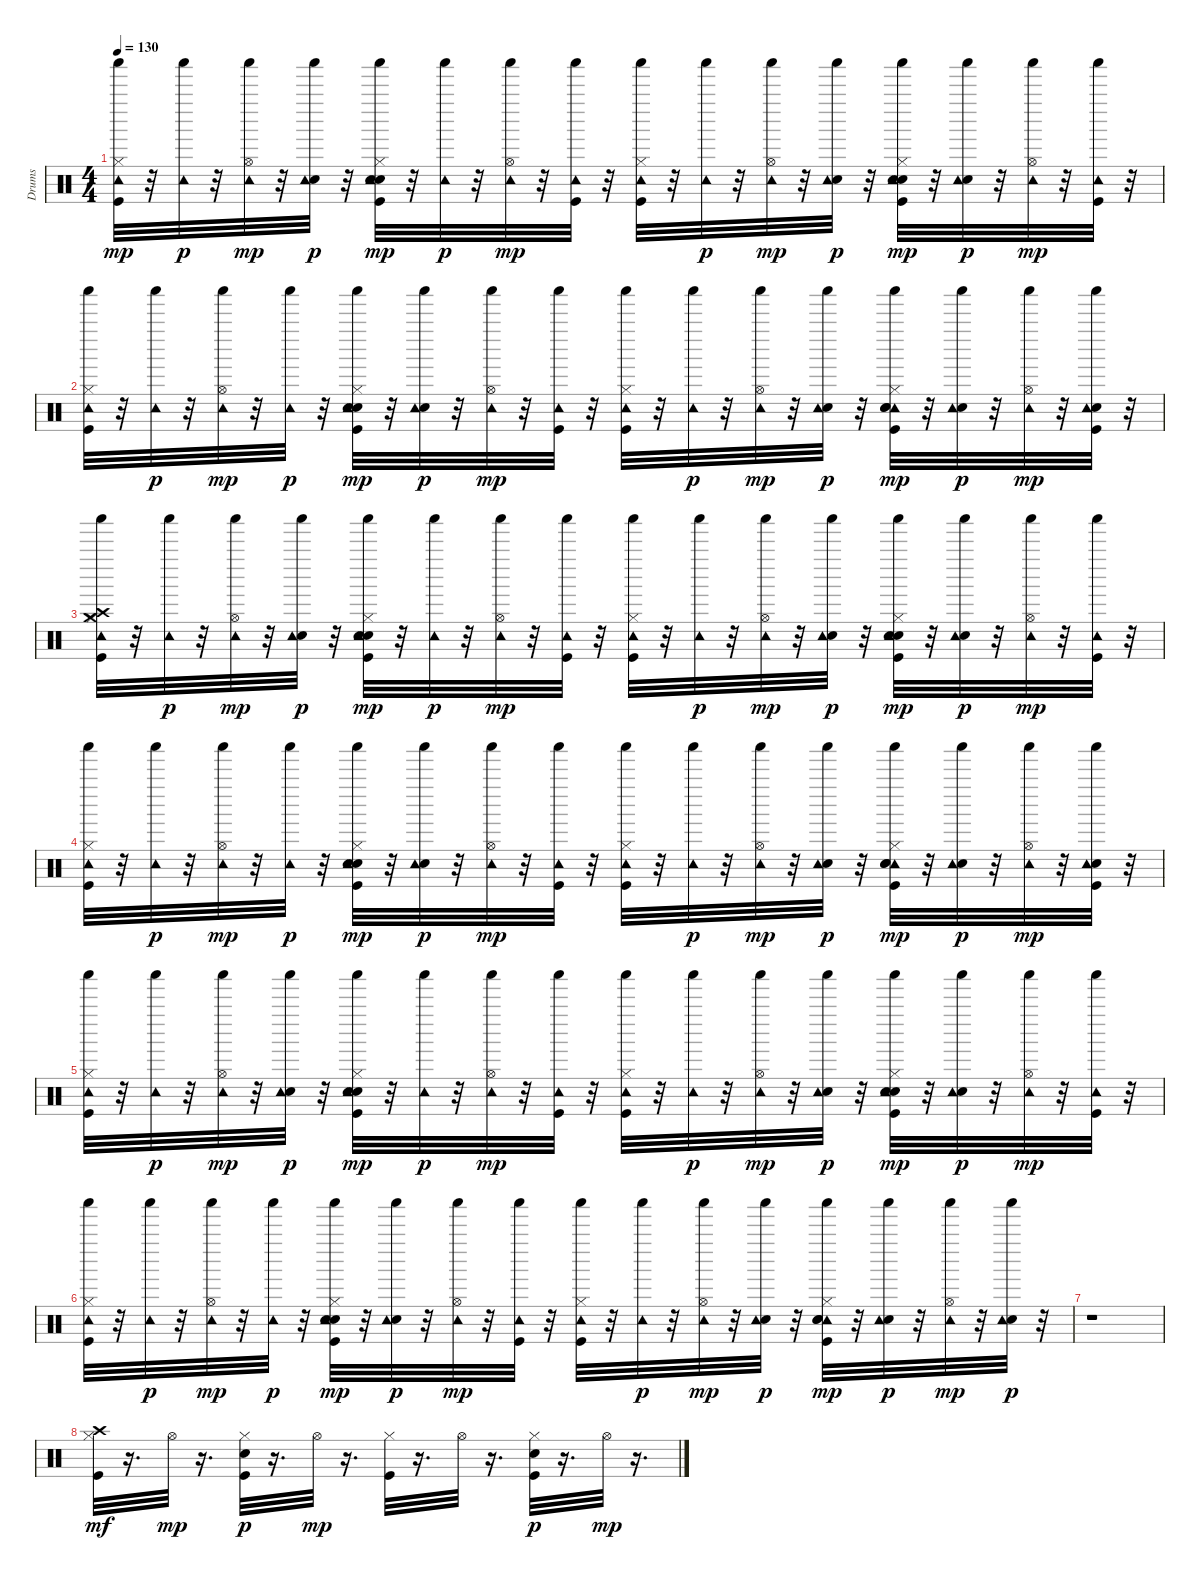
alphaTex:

\track ("Drums" "Drums") {instrument percussion}
\staff {score}
\articulation defaults
\ts (4 4)
\tempo 130
\clef neutral
\ks c
("Kick (hit)" "Hi-Hat (closed)" "Tambourine (hit)" "Shaker (hit)").32{dy mp} r.32 ("Tambourine (hit)" "Shaker (hit)").32{dy p} r.32 ("Tambourine (hit)" "Hi-Hat (open)" "Shaker (hit)").32{dy mp} r.32 ("Electric Snare (hit)" "Tambourine (hit)" "Shaker (hit)").32{dy p} r.32 ("Kick (hit)" "Hi-Hat (closed)" "Hand Clap (hit)" "Tambourine (hit)" "Shaker (hit)" "Snare (hit) 2").32{dy mp} r.32 ("Tambourine (hit)" "Shaker (hit)").32{dy p} r.32 ("Tambourine (hit)" "Hi-Hat (open)" "Shaker (hit)").32{dy mp} r.32 ("Tambourine (hit)" "Shaker (hit)" "Kick (hit)").32 r.32 ("Kick (hit)" "Hi-Hat (closed)" "Tambourine (hit)" "Shaker (hit)").32 r.32 ("Tambourine (hit)" "Shaker (hit)").32{dy p} r.32 ("Tambourine (hit)" "Hi-Hat (open)" "Shaker (hit)").32{dy mp} r.32 ("Electric Snare (hit)" "Tambourine (hit)" "Shaker (hit)").32{dy p} r.32 ("Kick (hit)" "Hi-Hat (closed)" "Hand Clap (hit)" "Tambourine (hit)" "Shaker (hit)" "Snare (hit) 2").32{dy mp} r.32 ("Electric Snare (hit)" "Tambourine (hit)" "Shaker (hit)").32{dy p} r.32 ("Tambourine (hit)" "Hi-Hat (open)" "Shaker (hit)").32{dy mp} r.32 ("Tambourine (hit)" "Shaker (hit)" "Kick (hit)").32 r.32 |
("Kick (hit)" "Hi-Hat (closed)" "Tambourine (hit)" "Shaker (hit)").32 r.32 ("Tambourine (hit)" "Shaker (hit)").32{dy p} r.32 ("Tambourine (hit)" "Hi-Hat (open)" "Shaker (hit)").32{dy mp} r.32 ("Tambourine (hit)" "Shaker (hit)").32{dy p} r.32 ("Kick (hit)" "Hi-Hat (closed)" "Hand Clap (hit)" "Tambourine (hit)" "Shaker (hit)" "Snare (hit) 2").32{dy mp} r.32 ("Electric Snare (hit)" "Tambourine (hit)" "Shaker (hit)").32{dy p} r.32 ("Tambourine (hit)" "Hi-Hat (open)" "Shaker (hit)").32{dy mp} r.32 ("Tambourine (hit)" "Shaker (hit)" "Kick (hit)").32 r.32 ("Kick (hit)" "Hi-Hat (closed)" "Tambourine (hit)" "Shaker (hit)").32 r.32 ("Tambourine (hit)" "Shaker (hit)").32{dy p} r.32 ("Tambourine (hit)" "Hi-Hat (open)" "Shaker (hit)").32{dy mp} r.32 ("Electric Snare (hit)" "Tambourine (hit)" "Shaker (hit)").32{dy p} r.32 ("Kick (hit)" "Hi-Hat (closed)" "Tambourine (hit)" "Shaker (hit)" "Hand Clap (hit)" "Snare (hit) 2").32{dy mp} r.32 ("Electric Snare (hit)" "Tambourine (hit)" "Shaker (hit)").32{dy p} r.32 ("Tambourine (hit)" "Hi-Hat (open)" "Shaker (hit)").32{dy mp} r.32 ("Electric Snare (hit)" "Tambourine (hit)" "Shaker (hit)" "Kick (hit)").32 r.32 |
("Kick (hit)" "Hi-Hat (closed)" "Crash high (hit)" "Crash medium (hit)" "Tambourine (hit)" "Shaker (hit)").32 r.32 ("Tambourine (hit)" "Shaker (hit)").32{dy p} r.32 ("Tambourine (hit)" "Hi-Hat (open)" "Shaker (hit)").32{dy mp} r.32 ("Electric Snare (hit)" "Tambourine (hit)" "Shaker (hit)").32{dy p} r.32 ("Kick (hit)" "Hi-Hat (closed)" "Hand Clap (hit)" "Tambourine (hit)" "Shaker (hit)" "Snare (hit) 2").32{dy mp} r.32 ("Tambourine (hit)" "Shaker (hit)").32{dy p} r.32 ("Tambourine (hit)" "Hi-Hat (open)" "Shaker (hit)").32{dy mp} r.32 ("Tambourine (hit)" "Shaker (hit)" "Kick (hit)").32 r.32 ("Kick (hit)" "Hi-Hat (closed)" "Tambourine (hit)" "Shaker (hit)").32 r.32 ("Tambourine (hit)" "Shaker (hit)").32{dy p} r.32 ("Tambourine (hit)" "Hi-Hat (open)" "Shaker (hit)").32{dy mp} r.32 ("Electric Snare (hit)" "Tambourine (hit)" "Shaker (hit)").32{dy p} r.32 ("Kick (hit)" "Hi-Hat (closed)" "Hand Clap (hit)" "Tambourine (hit)" "Shaker (hit)" "Snare (hit) 2").32{dy mp} r.32 ("Electric Snare (hit)" "Tambourine (hit)" "Shaker (hit)").32{dy p} r.32 ("Tambourine (hit)" "Hi-Hat (open)" "Shaker (hit)").32{dy mp} r.32 ("Tambourine (hit)" "Shaker (hit)" "Kick (hit)").32 r.32 |
("Kick (hit)" "Hi-Hat (closed)" "Tambourine (hit)" "Shaker (hit)").32 r.32 ("Tambourine (hit)" "Shaker (hit)").32{dy p} r.32 ("Tambourine (hit)" "Hi-Hat (open)" "Shaker (hit)").32{dy mp} r.32 ("Tambourine (hit)" "Shaker (hit)").32{dy p} r.32 ("Kick (hit)" "Hi-Hat (closed)" "Hand Clap (hit)" "Tambourine (hit)" "Shaker (hit)" "Snare (hit) 2").32{dy mp} r.32 ("Electric Snare (hit)" "Tambourine (hit)" "Shaker (hit)").32{dy p} r.32 ("Tambourine (hit)" "Hi-Hat (open)" "Shaker (hit)").32{dy mp} r.32 ("Tambourine (hit)" "Shaker (hit)" "Kick (hit)").32 r.32 ("Kick (hit)" "Hi-Hat (closed)" "Tambourine (hit)" "Shaker (hit)").32 r.32 ("Tambourine (hit)" "Shaker (hit)").32{dy p} r.32 ("Tambourine (hit)" "Hi-Hat (open)" "Shaker (hit)").32{dy mp} r.32 ("Electric Snare (hit)" "Tambourine (hit)" "Shaker (hit)").32{dy p} r.32 ("Kick (hit)" "Hi-Hat (closed)" "Tambourine (hit)" "Shaker (hit)" "Hand Clap (hit)" "Snare (hit) 2").32{dy mp} r.32 ("Electric Snare (hit)" "Tambourine (hit)" "Shaker (hit)").32{dy p} r.32 ("Tambourine (hit)" "Hi-Hat (open)" "Shaker (hit)").32{dy mp} r.32 ("Electric Snare (hit)" "Tambourine (hit)" "Shaker (hit)" "Kick (hit)").32 r.32 |
("Kick (hit)" "Hi-Hat (closed)" "Tambourine (hit)" "Shaker (hit)").32 r.32 ("Tambourine (hit)" "Shaker (hit)").32{dy p} r.32 ("Tambourine (hit)" "Hi-Hat (open)" "Shaker (hit)").32{dy mp} r.32 ("Electric Snare (hit)" "Tambourine (hit)" "Shaker (hit)").32{dy p} r.32 ("Kick (hit)" "Hi-Hat (closed)" "Hand Clap (hit)" "Tambourine (hit)" "Shaker (hit)" "Snare (hit) 2").32{dy mp} r.32 ("Tambourine (hit)" "Shaker (hit)").32{dy p} r.32 ("Tambourine (hit)" "Hi-Hat (open)" "Shaker (hit)").32{dy mp} r.32 ("Tambourine (hit)" "Shaker (hit)" "Kick (hit)").32 r.32 ("Kick (hit)" "Hi-Hat (closed)" "Tambourine (hit)" "Shaker (hit)").32 r.32 ("Tambourine (hit)" "Shaker (hit)").32{dy p} r.32 ("Tambourine (hit)" "Hi-Hat (open)" "Shaker (hit)").32{dy mp} r.32 ("Electric Snare (hit)" "Tambourine (hit)" "Shaker (hit)").32{dy p} r.32 ("Kick (hit)" "Hi-Hat (closed)" "Hand Clap (hit)" "Tambourine (hit)" "Shaker (hit)" "Snare (hit) 2").32{dy mp} r.32 ("Electric Snare (hit)" "Tambourine (hit)" "Shaker (hit)").32{dy p} r.32 ("Tambourine (hit)" "Hi-Hat (open)" "Shaker (hit)").32{dy mp} r.32 ("Tambourine (hit)" "Shaker (hit)" "Kick (hit)").32 r.32 |
("Kick (hit)" "Hi-Hat (closed)" "Tambourine (hit)" "Shaker (hit)").32 r.32 ("Tambourine (hit)" "Shaker (hit)").32{dy p} r.32 ("Tambourine (hit)" "Hi-Hat (open)" "Shaker (hit)").32{dy mp} r.32 ("Tambourine (hit)" "Shaker (hit)").32{dy p} r.32 ("Kick (hit)" "Hi-Hat (closed)" "Hand Clap (hit)" "Tambourine (hit)" "Shaker (hit)" "Snare (hit) 2").32{dy mp} r.32 ("Electric Snare (hit)" "Tambourine (hit)" "Shaker (hit)").32{dy p} r.32 ("Tambourine (hit)" "Hi-Hat (open)" "Shaker (hit)").32{dy mp} r.32 ("Tambourine (hit)" "Shaker (hit)" "Kick (hit)").32 r.32 ("Kick (hit)" "Hi-Hat (closed)" "Tambourine (hit)" "Shaker (hit)").32 r.32 ("Tambourine (hit)" "Shaker (hit)").32{dy p} r.32 ("Tambourine (hit)" "Hi-Hat (open)" "Shaker (hit)").32{dy mp} r.32 ("Electric Snare (hit)" "Tambourine (hit)" "Shaker (hit)").32{dy p} r.32 ("Kick (hit)" "Hi-Hat (closed)" "Tambourine (hit)" "Shaker (hit)" "Hand Clap (hit)" "Snare (hit) 2").32{dy mp} r.32 ("Electric Snare (hit)" "Tambourine (hit)" "Shaker (hit)").32{dy p} r.32 ("Tambourine (hit)" "Hi-Hat (open)" "Shaker (hit)").32{dy mp} r.32 ("Electric Snare (hit)" "Tambourine (hit)" "Shaker (hit)").32{dy p} r.32 |
r.1 |
("Kick (hit)" "Hi-Hat (closed)" "Crash high (hit)").32{dy mf} r.16{d} "Hi-Hat (open)".32{dy mp} r.16{d} ("Kick (hit)" "Hi-Hat (closed)" "Electric Snare (hit)").32{dy p} r.16{d} "Hi-Hat (open)".32{dy mp} r.16{d} ("Kick (hit)" "Hi-Hat (closed)").32 r.16{d} "Hi-Hat (open)".32 r.16{d} ("Kick (hit)" "Hi-Hat (closed)" "Electric Snare (hit)").32{dy p} r.16{d} "Hi-Hat (open)".32{dy mp} r.16{d}
